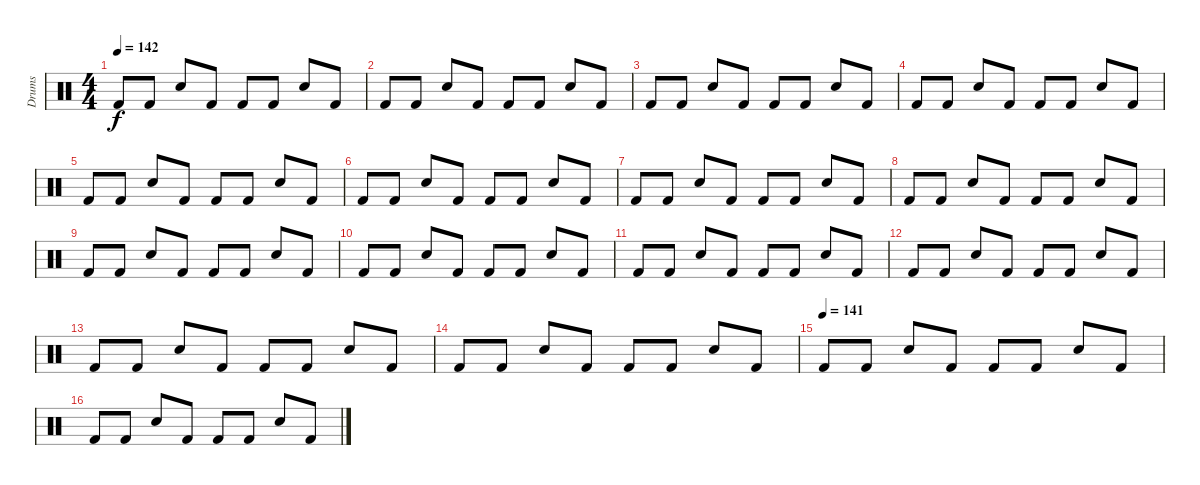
\track ("Drums" "Drums") {instrument percussion}
\staff {score}
\articulation defaults
\ts (4 4)
\tempo 142
\clef neutral
\ks c "Kick (hit) 2".8{dy f} "Kick (hit) 2".8 "Snare (hit) 2".8 "Kick (hit) 2".8 "Kick (hit) 2".8 "Kick (hit) 2".8 "Snare (hit) 2".8 "Kick (hit) 2".8
|
"Kick (hit) 2".8 "Kick (hit) 2".8 "Snare (hit) 2".8 "Kick (hit) 2".8 "Kick (hit) 2".8 "Kick (hit) 2".8 "Snare (hit) 2".8 "Kick (hit) 2".8 |
"Kick (hit) 2".8 "Kick (hit) 2".8 "Snare (hit) 2".8 "Kick (hit) 2".8 "Kick (hit) 2".8 "Kick (hit) 2".8 "Snare (hit) 2".8 "Kick (hit) 2".8 |
"Kick (hit) 2".8 "Kick (hit) 2".8 "Snare (hit) 2".8 "Kick (hit) 2".8 "Kick (hit) 2".8 "Kick (hit) 2".8 "Snare (hit) 2".8 "Kick (hit) 2".8 |
"Kick (hit) 2".8 "Kick (hit) 2".8 "Snare (hit) 2".8 "Kick (hit) 2".8 "Kick (hit) 2".8 "Kick (hit) 2".8 "Snare (hit) 2".8 "Kick (hit) 2".8 |
"Kick (hit) 2".8 "Kick (hit) 2".8 "Snare (hit) 2".8 "Kick (hit) 2".8 "Kick (hit) 2".8 "Kick (hit) 2".8 "Snare (hit) 2".8 "Kick (hit) 2".8 |
"Kick (hit) 2".8 "Kick (hit) 2".8 "Snare (hit) 2".8 "Kick (hit) 2".8 "Kick (hit) 2".8 "Kick (hit) 2".8 "Snare (hit) 2".8 "Kick (hit) 2".8 |
"Kick (hit) 2".8 "Kick (hit) 2".8 "Snare (hit) 2".8 "Kick (hit) 2".8 "Kick (hit) 2".8 "Kick (hit) 2".8 "Snare (hit) 2".8 "Kick (hit) 2".8 |
"Kick (hit) 2".8 "Kick (hit) 2".8 "Snare (hit) 2".8 "Kick (hit) 2".8 "Kick (hit) 2".8 "Kick (hit) 2".8 "Snare (hit) 2".8 "Kick (hit) 2".8 |
"Kick (hit) 2".8 "Kick (hit) 2".8 "Snare (hit) 2".8 "Kick (hit) 2".8 "Kick (hit) 2".8 "Kick (hit) 2".8 "Snare (hit) 2".8 "Kick (hit) 2".8 |
"Kick (hit) 2".8 "Kick (hit) 2".8 "Snare (hit) 2".8 "Kick (hit) 2".8 "Kick (hit) 2".8 "Kick (hit) 2".8 "Snare (hit) 2".8 "Kick (hit) 2".8 |
"Kick (hit) 2".8 "Kick (hit) 2".8 "Snare (hit) 2".8 "Kick (hit) 2".8 "Kick (hit) 2".8 "Kick (hit) 2".8 "Snare (hit) 2".8 "Kick (hit) 2".8 |
"Kick (hit) 2".8 "Kick (hit) 2".8 "Snare (hit) 2".8 "Kick (hit) 2".8 "Kick (hit) 2".8 "Kick (hit) 2".8 "Snare (hit) 2".8 "Kick (hit) 2".8 |
"Kick (hit) 2".8 "Kick (hit) 2".8 "Snare (hit) 2".8 "Kick (hit) 2".8 "Kick (hit) 2".8 "Kick (hit) 2".8 "Snare (hit) 2".8 "Kick (hit) 2".8 |
\tempo (141)
"Kick (hit) 2".8 "Kick (hit) 2".8 "Snare (hit) 2".8 "Kick (hit) 2".8 "Kick (hit) 2".8 "Kick (hit) 2".8 "Snare (hit) 2".8 "Kick (hit) 2".8 |
"Kick (hit) 2".8 "Kick (hit) 2".8 "Snare (hit) 2".8 "Kick (hit) 2".8 "Kick (hit) 2".8 "Kick (hit) 2".8 "Snare (hit) 2".8 "Kick (hit) 2".8
